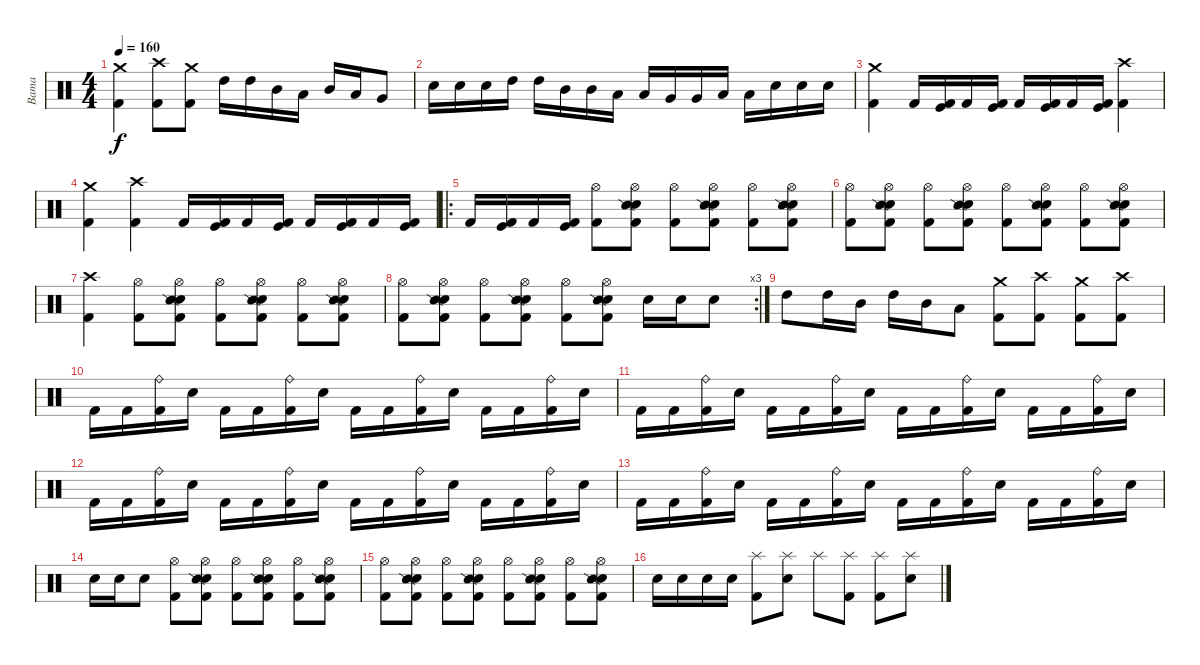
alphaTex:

\track ("Bama" "Bama") {instrument percussion}
\staff {score}
\articulation defaults
\ts (4 4)
\tempo 160
\clef neutral
\ks c
("Crash medium (hit)" "Kick (hit) 2").4{dy f} ("Crash high (hit)" "Kick (hit) 2").8 ("Crash medium (hit)" "Kick (hit) 2").8 "High Tom (hit)".16 "High Tom (hit)".16 "Mid Tom (hit)".16 "Low Tom (hit)".16 "Mid Tom (hit)".16 "Low Tom (hit)".16 "Very Low Tom (hit)".8 |
"Electric Snare (hit)".16 "Electric Snare (hit)".16 "Electric Snare (hit)".16 "High Tom (hit)".16 "High Tom (hit)".16 "Mid Tom (hit)".16 "Mid Tom (hit)".16 "Low Tom (hit)".16 "Low Tom (hit)".16 "Very Low Tom (hit)".16 "Very Low Tom (hit)".16 "Low Floor Tom (hit)".16 "Low Floor Tom (hit)".16 "Electric Snare (hit)".16 "Electric Snare (hit)".16 "Electric Snare (hit)".16 |
("Crash medium (hit)" "Kick (hit) 2").4 "Kick (hit) 2".16 ("Kick (hit)" "Kick (hit) 2").16 "Kick (hit) 2".16 ("Kick (hit)" "Kick (hit) 2").16 "Kick (hit) 2".16 ("Kick (hit)" "Kick (hit) 2").16 "Kick (hit) 2".16 ("Kick (hit)" "Kick (hit) 2").16 ("Crash high (hit)" "Kick (hit) 2").4 |
("Crash medium (hit)" "Kick (hit) 2").4 ("Crash high (hit)" "Kick (hit) 2").4 "Kick (hit) 2".16 ("Kick (hit)" "Kick (hit) 2").16 "Kick (hit) 2".16 ("Kick (hit)" "Kick (hit) 2").16 "Kick (hit) 2".16 ("Kick (hit)" "Kick (hit) 2").16 "Kick (hit) 2".16 ("Kick (hit)" "Kick (hit) 2").16 |
\ro "Kick (hit) 2".16
("Kick (hit)" "Kick (hit) 2").16 "Kick (hit) 2".16 ("Kick (hit)" "Kick (hit) 2").16 ("Hi-Hat (open)" "Kick (hit) 2").8 ("Hi-Hat (open)" "Electric Snare (hit)" "Snare (side stick) 2" "Kick (hit) 2").8 ("Hi-Hat (open)" "Kick (hit) 2").8 ("Hi-Hat (open)" "Electric Snare (hit)" "Snare (side stick) 2" "Kick (hit) 2").8 ("Hi-Hat (open)" "Kick (hit) 2").8 ("Hi-Hat (open)" "Electric Snare (hit)" "Snare (side stick) 2" "Kick (hit) 2").8 |
("Hi-Hat (open)" "Kick (hit) 2").8 ("Hi-Hat (open)" "Electric Snare (hit)" "Snare (side stick) 2" "Kick (hit) 2").8 ("Hi-Hat (open)" "Kick (hit) 2").8 ("Hi-Hat (open)" "Electric Snare (hit)" "Snare (side stick) 2" "Kick (hit) 2").8 ("Hi-Hat (open)" "Kick (hit) 2").8 ("Hi-Hat (open)" "Electric Snare (hit)" "Snare (side stick) 2" "Kick (hit) 2").8 ("Hi-Hat (open)" "Kick (hit) 2").8 ("Hi-Hat (open)" "Electric Snare (hit)" "Snare (side stick) 2" "Kick (hit) 2").8 |
("Crash high (hit)" "Kick (hit) 2").4 ("Hi-Hat (open)" "Kick (hit) 2").8 ("Hi-Hat (open)" "Electric Snare (hit)" "Snare (side stick) 2" "Kick (hit) 2").8 ("Hi-Hat (open)" "Kick (hit) 2").8 ("Hi-Hat (open)" "Electric Snare (hit)" "Snare (side stick) 2" "Kick (hit) 2").8 ("Hi-Hat (open)" "Kick (hit) 2").8 ("Hi-Hat (open)" "Electric Snare (hit)" "Snare (side stick) 2" "Kick (hit) 2").8 |
\rc 3
("Hi-Hat (open)" "Kick (hit) 2").8 ("Hi-Hat (open)" "Electric Snare (hit)" "Snare (side stick) 2" "Kick (hit) 2").8 ("Hi-Hat (open)" "Kick (hit) 2").8 ("Hi-Hat (open)" "Electric Snare (hit)" "Snare (side stick) 2" "Kick (hit) 2").8 ("Hi-Hat (open)" "Kick (hit) 2").8 ("Hi-Hat (open)" "Electric Snare (hit)" "Snare (side stick) 2" "Kick (hit) 2").8 "Electric Snare (hit)".16 "Electric Snare (hit)".16 "Electric Snare (hit)".8 |
"High Tom (hit)".8 "High Tom (hit)".16 "Mid Tom (hit)".16 "High Tom (hit)".16 "Mid Tom (hit)".16 "Low Tom (hit)".8 ("Crash medium (hit)" "Kick (hit) 2").8 ("Crash high (hit)" "Kick (hit) 2").8 ("Crash medium (hit)" "Kick (hit) 2").8 ("Crash high (hit)" "Kick (hit) 2").8 |
"Kick (hit) 2".16 "Kick (hit) 2".16 ("Ride (bell)" "Kick (hit) 2").16 "Electric Snare (hit)".16 "Kick (hit) 2".16 "Kick (hit) 2".16 ("Ride (bell)" "Kick (hit) 2").16 "Electric Snare (hit)".16 "Kick (hit) 2".16 "Kick (hit) 2".16 ("Ride (bell)" "Kick (hit) 2").16 "Electric Snare (hit)".16 "Kick (hit) 2".16 "Kick (hit) 2".16 ("Ride (bell)" "Kick (hit) 2").16 "Electric Snare (hit)".16 |
"Kick (hit) 2".16 "Kick (hit) 2".16 ("Ride (bell)" "Kick (hit) 2").16 "Electric Snare (hit)".16 "Kick (hit) 2".16 "Kick (hit) 2".16 ("Ride (bell)" "Kick (hit) 2").16 "Electric Snare (hit)".16 "Kick (hit) 2".16 "Kick (hit) 2".16 ("Ride (bell)" "Kick (hit) 2").16 "Electric Snare (hit)".16 "Kick (hit) 2".16 "Kick (hit) 2".16 ("Ride (bell)" "Kick (hit) 2").16 "Electric Snare (hit)".16 |
"Kick (hit) 2".16 "Kick (hit) 2".16 ("Ride (bell)" "Kick (hit) 2").16 "Electric Snare (hit)".16 "Kick (hit) 2".16 "Kick (hit) 2".16 ("Ride (bell)" "Kick (hit) 2").16 "Electric Snare (hit)".16 "Kick (hit) 2".16 "Kick (hit) 2".16 ("Ride (bell)" "Kick (hit) 2").16 "Electric Snare (hit)".16 "Kick (hit) 2".16 "Kick (hit) 2".16 ("Ride (bell)" "Kick (hit) 2").16 "Electric Snare (hit)".16 |
"Kick (hit) 2".16 "Kick (hit) 2".16 ("Ride (bell)" "Kick (hit) 2").16 "Electric Snare (hit)".16 "Kick (hit) 2".16 "Kick (hit) 2".16 ("Ride (bell)" "Kick (hit) 2").16 "Electric Snare (hit)".16 "Kick (hit) 2".16 "Kick (hit) 2".16 ("Ride (bell)" "Kick (hit) 2").16 "Electric Snare (hit)".16 "Kick (hit) 2".16 "Kick (hit) 2".16 ("Ride (bell)" "Kick (hit) 2").16 "Electric Snare (hit)".16 |
"Electric Snare (hit)".16 "Electric Snare (hit)".16 "Electric Snare (hit)".8 ("Hi-Hat (open)" "Kick (hit) 2").8 ("Hi-Hat (open)" "Electric Snare (hit)" "Snare (side stick) 2" "Kick (hit) 2").8 ("Hi-Hat (open)" "Kick (hit) 2").8 ("Hi-Hat (open)" "Electric Snare (hit)" "Snare (side stick) 2" "Kick (hit) 2").8 ("Hi-Hat (open)" "Kick (hit) 2").8 ("Hi-Hat (open)" "Electric Snare (hit)" "Snare (side stick) 2" "Kick (hit) 2").8 |
("Hi-Hat (open)" "Kick (hit) 2").8 ("Hi-Hat (open)" "Electric Snare (hit)" "Snare (side stick) 2" "Kick (hit) 2").8 ("Hi-Hat (open)" "Kick (hit) 2").8 ("Hi-Hat (open)" "Electric Snare (hit)" "Snare (side stick) 2" "Kick (hit) 2").8 ("Hi-Hat (open)" "Kick (hit) 2").8 ("Hi-Hat (open)" "Electric Snare (hit)" "Snare (side stick) 2" "Kick (hit) 2").8 ("Hi-Hat (open)" "Kick (hit) 2").8 ("Hi-Hat (open)" "Electric Snare (hit)" "Snare (side stick) 2" "Kick (hit) 2").8 |
"Electric Snare (hit)".16 "Electric Snare (hit)".16 "Electric Snare (hit)".16 "Electric Snare (hit)".16 ("Splash (hit)" "Kick (hit) 2").8 ("Splash (hit)" "Electric Snare (hit)").8 "Splash (hit)".8 ("Splash (hit)" "Kick (hit) 2").8 ("Splash (hit)" "Kick (hit) 2").8 ("Splash (hit)" "Electric Snare (hit)").8
